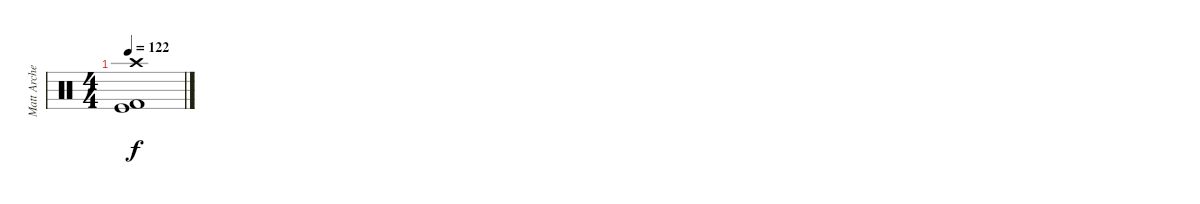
\track ("Matt Archer" "Matt Arche") {instrument percussion}
\staff {score}
\articulation defaults
\ts (4 4)
\tempo 122
\clef neutral
\ks c
("Kick (hit)" "Kick (hit) 2" "Crash high (hit)").1{dy f}
